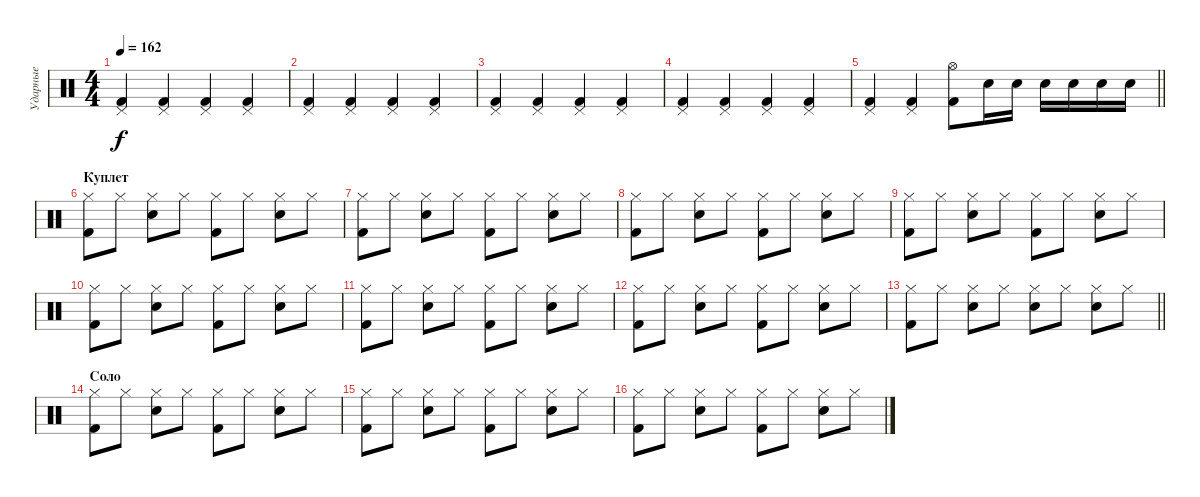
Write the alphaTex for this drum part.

\track ("Ударные" "Ударные") {instrument percussion}
\staff {score}
\articulation defaults
\ts (4 4)
\tempo 162
\clef neutral
\ks c
("Kick (hit) 2" "Pedal Hi-Hat (hit)").4{dy f} ("Kick (hit) 2" "Pedal Hi-Hat (hit)").4 ("Kick (hit) 2" "Pedal Hi-Hat (hit)").4 ("Kick (hit) 2" "Pedal Hi-Hat (hit)").4 |
("Kick (hit) 2" "Pedal Hi-Hat (hit)").4 ("Kick (hit) 2" "Pedal Hi-Hat (hit)").4 ("Kick (hit) 2" "Pedal Hi-Hat (hit)").4 ("Kick (hit) 2" "Pedal Hi-Hat (hit)").4 |
("Kick (hit) 2" "Pedal Hi-Hat (hit)").4 ("Kick (hit) 2" "Pedal Hi-Hat (hit)").4 ("Kick (hit) 2" "Pedal Hi-Hat (hit)").4 ("Kick (hit) 2" "Pedal Hi-Hat (hit)").4 |
("Kick (hit) 2" "Pedal Hi-Hat (hit)").4 ("Kick (hit) 2" "Pedal Hi-Hat (hit)").4 ("Kick (hit) 2" "Pedal Hi-Hat (hit)").4 ("Kick (hit) 2" "Pedal Hi-Hat (hit)").4 |
\barLineRight lightlight
("Kick (hit) 2" "Pedal Hi-Hat (hit)").4 ("Kick (hit) 2" "Pedal Hi-Hat (hit)").4 ("Kick (hit) 2" "Hi-Hat (open)").8 "Electric Snare (hit)".16 "Electric Snare (hit)".16 "Electric Snare (hit)".16 "Electric Snare (hit)".16 "Electric Snare (hit)".16 "Electric Snare (hit)".16 |
\section ("" "Куплет")
("Hi-Hat (closed)" "Kick (hit) 2").8 "Hi-Hat (closed)".8 ("Hi-Hat (closed)" "Snare (hit) 2").8 "Hi-Hat (closed)".8 ("Hi-Hat (closed)" "Kick (hit) 2").8 "Hi-Hat (closed)".8 ("Hi-Hat (closed)" "Snare (hit) 2").8 "Hi-Hat (closed)".8 |
("Hi-Hat (closed)" "Kick (hit) 2").8 "Hi-Hat (closed)".8 ("Hi-Hat (closed)" "Snare (hit) 2").8 "Hi-Hat (closed)".8 ("Hi-Hat (closed)" "Kick (hit) 2").8 "Hi-Hat (closed)".8 ("Hi-Hat (closed)" "Snare (hit) 2").8 "Hi-Hat (closed)".8 |
("Hi-Hat (closed)" "Kick (hit) 2").8 "Hi-Hat (closed)".8 ("Hi-Hat (closed)" "Snare (hit) 2").8 "Hi-Hat (closed)".8 ("Hi-Hat (closed)" "Kick (hit) 2").8 "Hi-Hat (closed)".8 ("Hi-Hat (closed)" "Snare (hit) 2").8 "Hi-Hat (closed)".8 |
("Hi-Hat (closed)" "Kick (hit) 2").8 "Hi-Hat (closed)".8 ("Hi-Hat (closed)" "Snare (hit) 2").8 "Hi-Hat (closed)".8 ("Hi-Hat (closed)" "Kick (hit) 2").8 "Hi-Hat (closed)".8 ("Hi-Hat (closed)" "Snare (hit) 2").8 "Hi-Hat (closed)".8 |
("Hi-Hat (closed)" "Kick (hit) 2").8 "Hi-Hat (closed)".8 ("Hi-Hat (closed)" "Snare (hit) 2").8 "Hi-Hat (closed)".8 ("Hi-Hat (closed)" "Kick (hit) 2").8 "Hi-Hat (closed)".8 ("Hi-Hat (closed)" "Snare (hit) 2").8 "Hi-Hat (closed)".8 |
("Hi-Hat (closed)" "Kick (hit) 2").8 "Hi-Hat (closed)".8 ("Hi-Hat (closed)" "Snare (hit) 2").8 "Hi-Hat (closed)".8 ("Hi-Hat (closed)" "Kick (hit) 2").8 "Hi-Hat (closed)".8 ("Hi-Hat (closed)" "Snare (hit) 2").8 "Hi-Hat (closed)".8 |
("Hi-Hat (closed)" "Kick (hit) 2").8 "Hi-Hat (closed)".8 ("Hi-Hat (closed)" "Snare (hit) 2").8 "Hi-Hat (closed)".8 ("Hi-Hat (closed)" "Kick (hit) 2").8 "Hi-Hat (closed)".8 ("Hi-Hat (closed)" "Snare (hit) 2").8 "Hi-Hat (closed)".8 |
\barLineRight lightlight
("Hi-Hat (closed)" "Kick (hit) 2").8 "Hi-Hat (closed)".8 ("Hi-Hat (closed)" "Snare (hit) 2").8 "Hi-Hat (closed)".8 ("Hi-Hat (closed)" "Snare (hit) 2").8 "Hi-Hat (closed)".8 ("Hi-Hat (closed)" "Snare (hit) 2").8 "Hi-Hat (closed)".8 |
\section ("" "Соло")
("Hi-Hat (closed)" "Kick (hit) 2").8 "Hi-Hat (closed)".8 ("Hi-Hat (closed)" "Snare (hit) 2").8 "Hi-Hat (closed)".8 ("Hi-Hat (closed)" "Kick (hit) 2").8 "Hi-Hat (closed)".8 ("Hi-Hat (closed)" "Snare (hit) 2").8 "Hi-Hat (closed)".8 |
("Hi-Hat (closed)" "Kick (hit) 2").8 "Hi-Hat (closed)".8 ("Hi-Hat (closed)" "Snare (hit) 2").8 "Hi-Hat (closed)".8 ("Hi-Hat (closed)" "Kick (hit) 2").8 "Hi-Hat (closed)".8 ("Hi-Hat (closed)" "Snare (hit) 2").8 "Hi-Hat (closed)".8 |
("Hi-Hat (closed)" "Kick (hit) 2").8 "Hi-Hat (closed)".8 ("Hi-Hat (closed)" "Snare (hit) 2").8 "Hi-Hat (closed)".8 ("Hi-Hat (closed)" "Kick (hit) 2").8 "Hi-Hat (closed)".8 ("Hi-Hat (closed)" "Snare (hit) 2").8 "Hi-Hat (closed)".8
